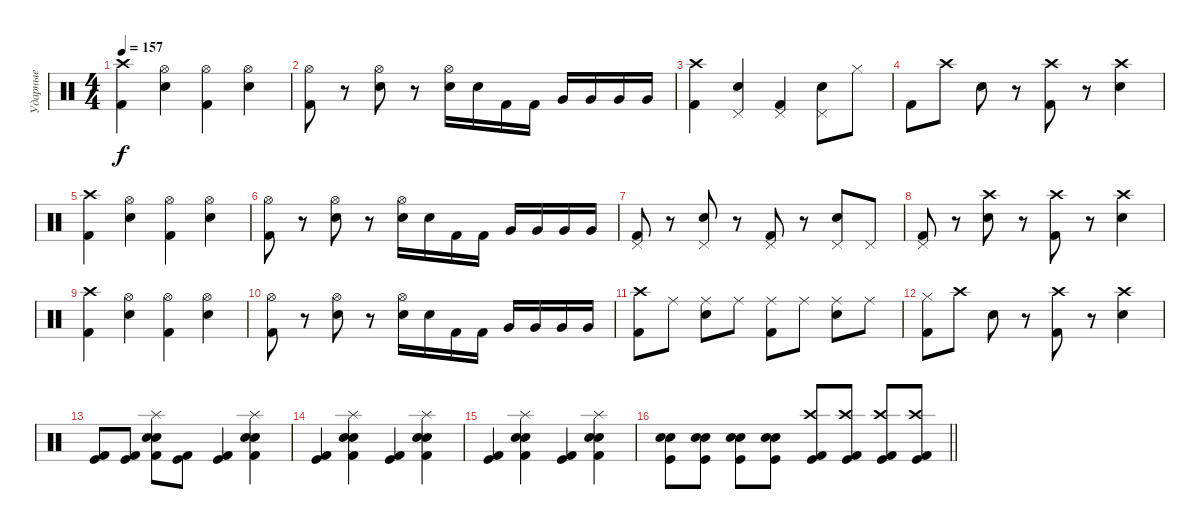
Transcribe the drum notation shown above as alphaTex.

\track ("Ударные" "Ударные") {instrument percussion}
\staff {score}
\articulation defaults
\ts (4 4)
\tempo 157
\clef neutral
\ks c
("Kick (hit) 2" "Crash high (hit)").4{dy f} ("Electric Snare (hit)" "Hi-Hat (open)").4 ("Kick (hit) 2" "Hi-Hat (open)").4 ("Electric Snare (hit)" "Hi-Hat (open)").4 |
("Kick (hit) 2" "Hi-Hat (open)").8 r.8 ("Electric Snare (hit)" "Hi-Hat (open)").8 r.8 ("Electric Snare (hit)" "Hi-Hat (open)").16 "Electric Snare (hit)".16 "Kick (hit) 2".16 "Kick (hit) 2".16 "Very Low Tom (hit)".16 "Very Low Tom (hit)".16 "Very Low Tom (hit)".16 "Very Low Tom (hit)".16 |
("Kick (hit) 2" "Crash high (hit)").4 ("Electric Snare (hit)" "Pedal Hi-Hat (hit)").4 ("Kick (hit) 2" "Pedal Hi-Hat (hit)").4 ("Electric Snare (hit)" "Pedal Hi-Hat (hit)").8 "Hi-Hat (closed)".8 |
"Kick (hit) 2".8 "Crash high (hit)".8 "Electric Snare (hit)".8 r.8 ("Kick (hit) 2" "Crash high (hit)").8 r.8 ("Electric Snare (hit)" "Crash high (hit)").4 |
("Kick (hit) 2" "Crash high (hit)").4 ("Electric Snare (hit)" "Hi-Hat (open)").4 ("Kick (hit) 2" "Hi-Hat (open)").4 ("Electric Snare (hit)" "Hi-Hat (open)").4 |
("Kick (hit) 2" "Hi-Hat (open)").8 r.8 ("Electric Snare (hit)" "Hi-Hat (open)").8 r.8 ("Electric Snare (hit)" "Hi-Hat (open)").16 "Electric Snare (hit)".16 "Kick (hit) 2".16 "Kick (hit) 2".16 "Very Low Tom (hit)".16 "Very Low Tom (hit)".16 "Very Low Tom (hit)".16 "Very Low Tom (hit)".16 |
("Kick (hit) 2" "Pedal Hi-Hat (hit)").8 r.8 ("Electric Snare (hit)" "Pedal Hi-Hat (hit)").8 r.8 ("Kick (hit) 2" "Pedal Hi-Hat (hit)").8 r.8 ("Electric Snare (hit)" "Pedal Hi-Hat (hit)").8 "Pedal Hi-Hat (hit)".8 |
("Kick (hit) 2" "Pedal Hi-Hat (hit)").8 r.8 ("Electric Snare (hit)" "Crash high (hit)").8 r.8 ("Kick (hit) 2" "Crash high (hit)").8 r.8 ("Electric Snare (hit)" "Crash high (hit)").4 |
("Kick (hit) 2" "Crash high (hit)").4 ("Electric Snare (hit)" "Hi-Hat (open)").4 ("Kick (hit) 2" "Hi-Hat (open)").4 ("Electric Snare (hit)" "Hi-Hat (open)").4 |
("Kick (hit) 2" "Hi-Hat (open)").8 r.8 ("Electric Snare (hit)" "Hi-Hat (open)").8 r.8 ("Electric Snare (hit)" "Hi-Hat (open)").16 "Electric Snare (hit)".16 "Kick (hit) 2".16 "Kick (hit) 2".16 "Very Low Tom (hit)".16 "Very Low Tom (hit)".16 "Very Low Tom (hit)".16 "Very Low Tom (hit)".16 |
("Kick (hit) 2" "Crash high (hit)").8 "Ride (middle)".8 ("Electric Snare (hit)" "Ride (middle)").8 "Ride (middle)".8 ("Kick (hit) 2" "Ride (middle)").8 "Ride (middle)".8 ("Electric Snare (hit)" "Ride (middle)").8 "Ride (middle)".8 |
("Kick (hit) 2" "Hi-Hat (closed)").8 "Crash high (hit)".8 "Electric Snare (hit)".8 r.8 ("Kick (hit) 2" "Crash high (hit)").8 r.8 ("Electric Snare (hit)" "Crash high (hit)").4 |
("Kick (hit) 2" "Kick (hit)").8 ("Kick (hit) 2" "Kick (hit)").8 ("Kick (hit) 2" "Electric Snare (hit)" "Snare (hit) 2" "Splash (hit)").8 ("Kick (hit) 2" "Kick (hit)").8 ("Kick (hit) 2" "Kick (hit)").4 ("Kick (hit) 2" "Electric Snare (hit)" "Snare (hit) 2" "Splash (hit)").4 |
("Kick (hit) 2" "Kick (hit)").4 ("Kick (hit) 2" "Electric Snare (hit)" "Snare (hit) 2" "Splash (hit)").4 ("Kick (hit) 2" "Kick (hit)").4 ("Kick (hit) 2" "Electric Snare (hit)" "Snare (hit) 2" "Splash (hit)").4 |
("Kick (hit) 2" "Kick (hit)").4 ("Kick (hit) 2" "Electric Snare (hit)" "Snare (hit) 2" "Splash (hit)").4 ("Kick (hit) 2" "Kick (hit)").4 ("Kick (hit) 2" "Electric Snare (hit)" "Snare (hit) 2" "Splash (hit)").4 |
\barLineRight lightlight
("Kick (hit)" "Electric Snare (hit)" "Snare (hit) 2").8 ("Kick (hit)" "Electric Snare (hit)" "Snare (hit) 2").8 ("Kick (hit)" "Electric Snare (hit)" "Snare (hit) 2").8 ("Kick (hit)" "Electric Snare (hit)" "Snare (hit) 2").8 ("Kick (hit) 2" "Kick (hit)" "Crash high (hit)").8 ("Kick (hit) 2" "Kick (hit)" "Crash high (hit)").8 ("Kick (hit) 2" "Kick (hit)" "Crash high (hit)").8 ("Kick (hit) 2" "Kick (hit)" "Crash high (hit)").8
